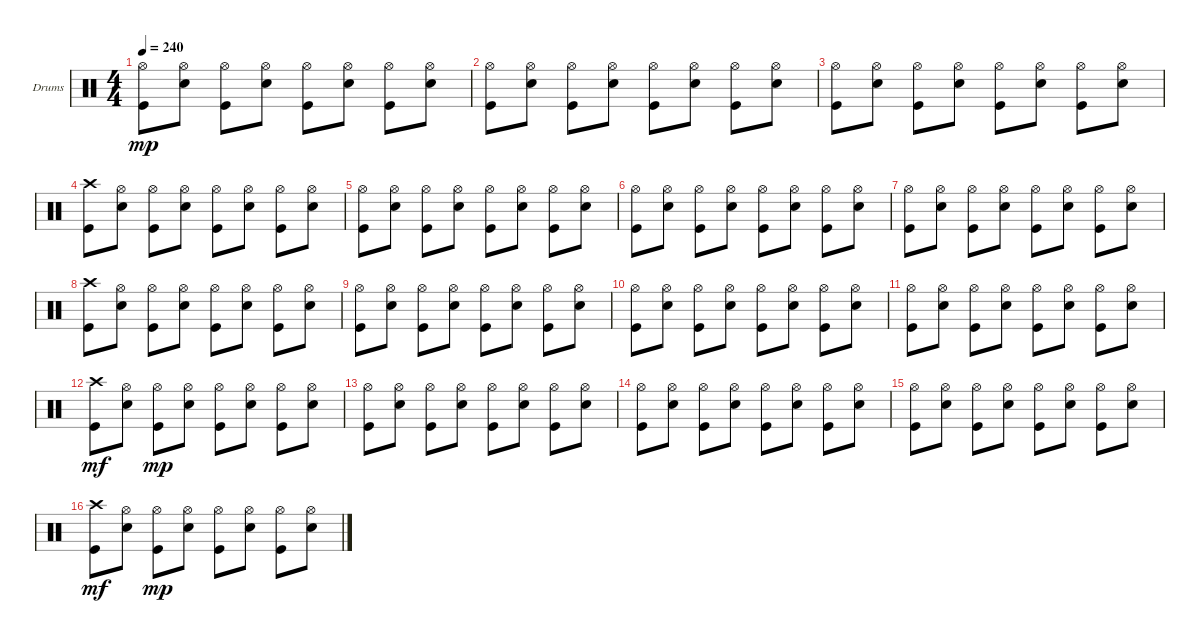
\bracketExtendMode groupsimilarinstruments
\firstSystemTrackNameOrientation horizontal
\otherSystemsTrackNameOrientation horizontal
\track ("Drumkit" "Drums") {instrument percussion}
\staff {score}
\articulation defaults
\ts (4 4)
\tempo 240
\clef neutral
\ks c
("Hi-Hat (open)" "Kick (hit)").8{dy mp} ("Hi-Hat (open)" "Snare (hit) 2").8 ("Hi-Hat (open)" "Kick (hit)").8 ("Hi-Hat (open)" "Snare (hit) 2").8 ("Hi-Hat (open)" "Kick (hit)").8 ("Hi-Hat (open)" "Snare (hit) 2").8 ("Hi-Hat (open)" "Kick (hit)").8 ("Hi-Hat (open)" "Snare (hit) 2").8 |
("Hi-Hat (open)" "Kick (hit)").8 ("Hi-Hat (open)" "Snare (hit) 2").8 ("Hi-Hat (open)" "Kick (hit)").8 ("Hi-Hat (open)" "Snare (hit) 2").8 ("Hi-Hat (open)" "Kick (hit)").8 ("Hi-Hat (open)" "Snare (hit) 2").8 ("Hi-Hat (open)" "Kick (hit)").8 ("Hi-Hat (open)" "Snare (hit) 2").8 |
("Hi-Hat (open)" "Kick (hit)").8 ("Hi-Hat (open)" "Snare (hit) 2").8 ("Hi-Hat (open)" "Kick (hit)").8 ("Hi-Hat (open)" "Snare (hit) 2").8 ("Hi-Hat (open)" "Kick (hit)").8 ("Hi-Hat (open)" "Snare (hit) 2").8 ("Hi-Hat (open)" "Kick (hit)").8 ("Hi-Hat (open)" "Snare (hit) 2").8 |
("Crash high (hit)" "Kick (hit)").8 ("Hi-Hat (open)" "Snare (hit) 2").8 ("Hi-Hat (open)" "Kick (hit)").8 ("Hi-Hat (open)" "Snare (hit) 2").8 ("Hi-Hat (open)" "Kick (hit)").8 ("Hi-Hat (open)" "Snare (hit) 2").8 ("Hi-Hat (open)" "Kick (hit)").8 ("Hi-Hat (open)" "Snare (hit) 2").8 |
("Hi-Hat (open)" "Kick (hit)").8 ("Hi-Hat (open)" "Snare (hit) 2").8 ("Hi-Hat (open)" "Kick (hit)").8 ("Hi-Hat (open)" "Snare (hit) 2").8 ("Hi-Hat (open)" "Kick (hit)").8 ("Hi-Hat (open)" "Snare (hit) 2").8 ("Hi-Hat (open)" "Kick (hit)").8 ("Hi-Hat (open)" "Snare (hit) 2").8 |
("Hi-Hat (open)" "Kick (hit)").8 ("Hi-Hat (open)" "Snare (hit) 2").8 ("Hi-Hat (open)" "Kick (hit)").8 ("Hi-Hat (open)" "Snare (hit) 2").8 ("Hi-Hat (open)" "Kick (hit)").8 ("Hi-Hat (open)" "Snare (hit) 2").8 ("Hi-Hat (open)" "Kick (hit)").8 ("Hi-Hat (open)" "Snare (hit) 2").8 |
("Hi-Hat (open)" "Kick (hit)").8 ("Hi-Hat (open)" "Snare (hit) 2").8 ("Hi-Hat (open)" "Kick (hit)").8 ("Hi-Hat (open)" "Snare (hit) 2").8 ("Hi-Hat (open)" "Kick (hit)").8 ("Hi-Hat (open)" "Snare (hit) 2").8 ("Hi-Hat (open)" "Kick (hit)").8 ("Hi-Hat (open)" "Snare (hit) 2").8 |
("Crash high (hit)" "Kick (hit)").8 ("Hi-Hat (open)" "Snare (hit) 2").8 ("Hi-Hat (open)" "Kick (hit)").8 ("Hi-Hat (open)" "Snare (hit) 2").8 ("Hi-Hat (open)" "Kick (hit)").8 ("Hi-Hat (open)" "Snare (hit) 2").8 ("Hi-Hat (open)" "Kick (hit)").8 ("Hi-Hat (open)" "Snare (hit) 2").8 |
("Hi-Hat (open)" "Kick (hit)").8 ("Hi-Hat (open)" "Snare (hit) 2").8 ("Hi-Hat (open)" "Kick (hit)").8 ("Hi-Hat (open)" "Snare (hit) 2").8 ("Hi-Hat (open)" "Kick (hit)").8 ("Hi-Hat (open)" "Snare (hit) 2").8 ("Hi-Hat (open)" "Kick (hit)").8 ("Hi-Hat (open)" "Snare (hit) 2").8 |
("Hi-Hat (open)" "Kick (hit)").8 ("Hi-Hat (open)" "Snare (hit) 2").8 ("Hi-Hat (open)" "Kick (hit)").8 ("Hi-Hat (open)" "Snare (hit) 2").8 ("Hi-Hat (open)" "Kick (hit)").8 ("Hi-Hat (open)" "Snare (hit) 2").8 ("Hi-Hat (open)" "Kick (hit)").8 ("Hi-Hat (open)" "Snare (hit) 2").8 |
("Hi-Hat (open)" "Kick (hit)").8 ("Hi-Hat (open)" "Snare (hit) 2").8 ("Hi-Hat (open)" "Kick (hit)").8 ("Hi-Hat (open)" "Snare (hit) 2").8 ("Hi-Hat (open)" "Kick (hit)").8 ("Hi-Hat (open)" "Snare (hit) 2").8 ("Hi-Hat (open)" "Kick (hit)").8 ("Hi-Hat (open)" "Snare (hit) 2").8 |
("Crash high (hit)" "Kick (hit)").8{dy mf} ("Hi-Hat (open)" "Snare (hit) 2").8 ("Hi-Hat (open)" "Kick (hit)").8{dy mp} ("Hi-Hat (open)" "Snare (hit) 2").8 ("Hi-Hat (open)" "Kick (hit)").8 ("Hi-Hat (open)" "Snare (hit) 2").8 ("Hi-Hat (open)" "Kick (hit)").8 ("Hi-Hat (open)" "Snare (hit) 2").8 |
("Hi-Hat (open)" "Kick (hit)").8 ("Hi-Hat (open)" "Snare (hit) 2").8 ("Hi-Hat (open)" "Kick (hit)").8 ("Hi-Hat (open)" "Snare (hit) 2").8 ("Hi-Hat (open)" "Kick (hit)").8 ("Hi-Hat (open)" "Snare (hit) 2").8 ("Hi-Hat (open)" "Kick (hit)").8 ("Hi-Hat (open)" "Snare (hit) 2").8 |
("Hi-Hat (open)" "Kick (hit)").8 ("Hi-Hat (open)" "Snare (hit) 2").8 ("Hi-Hat (open)" "Kick (hit)").8 ("Hi-Hat (open)" "Snare (hit) 2").8 ("Hi-Hat (open)" "Kick (hit)").8 ("Hi-Hat (open)" "Snare (hit) 2").8 ("Hi-Hat (open)" "Kick (hit)").8 ("Hi-Hat (open)" "Snare (hit) 2").8 |
("Hi-Hat (open)" "Kick (hit)").8 ("Hi-Hat (open)" "Snare (hit) 2").8 ("Hi-Hat (open)" "Kick (hit)").8 ("Hi-Hat (open)" "Snare (hit) 2").8 ("Hi-Hat (open)" "Kick (hit)").8 ("Hi-Hat (open)" "Snare (hit) 2").8 ("Hi-Hat (open)" "Kick (hit)").8 ("Hi-Hat (open)" "Snare (hit) 2").8 |
("Crash high (hit)" "Kick (hit)").8{dy mf} ("Hi-Hat (open)" "Snare (hit) 2").8 ("Hi-Hat (open)" "Kick (hit)").8{dy mp} ("Hi-Hat (open)" "Snare (hit) 2").8 ("Hi-Hat (open)" "Kick (hit)").8 ("Hi-Hat (open)" "Snare (hit) 2").8 ("Hi-Hat (open)" "Kick (hit)").8 ("Hi-Hat (open)" "Snare (hit) 2").8
